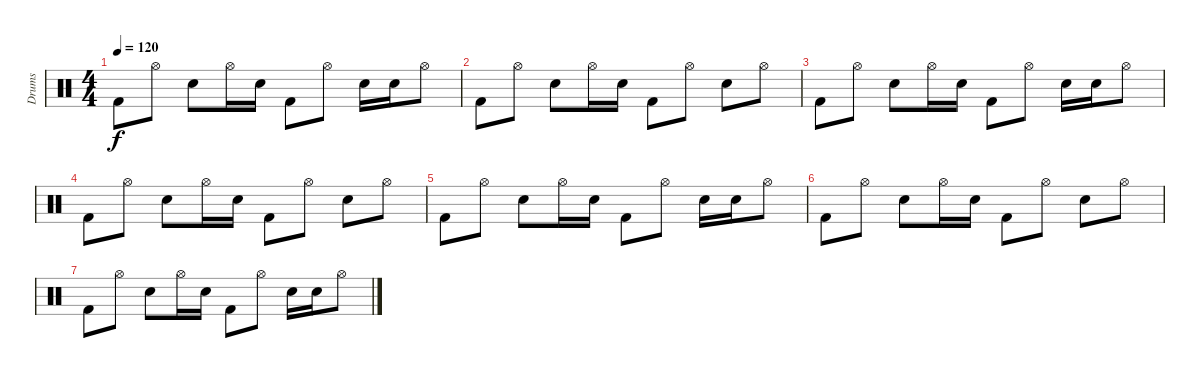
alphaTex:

\track ("Drums" "Drums") {instrument percussion}
\staff {score}
\articulation defaults
\ts (4 4)
\tempo 120
\clef neutral
\ks c "Kick (hit) 2".8{dy f} "Hi-Hat (open)".8 "Snare (hit) 2".8 "Hi-Hat (open)".16 "Snare (hit) 2".16 "Kick (hit) 2".8 "Hi-Hat (open)".8 "Snare (hit) 2".16 "Snare (hit) 2".16 "Hi-Hat (open)".8
|
"Kick (hit) 2".8 "Hi-Hat (open)".8 "Snare (hit) 2".8 "Hi-Hat (open)".16 "Snare (hit) 2".16 "Kick (hit) 2".8 "Hi-Hat (open)".8 "Snare (hit) 2".8 "Hi-Hat (open)".8 |
"Kick (hit) 2".8 "Hi-Hat (open)".8 "Snare (hit) 2".8 "Hi-Hat (open)".16 "Snare (hit) 2".16 "Kick (hit) 2".8 "Hi-Hat (open)".8 "Snare (hit) 2".16 "Snare (hit) 2".16 "Hi-Hat (open)".8 |
"Kick (hit) 2".8 "Hi-Hat (open)".8 "Snare (hit) 2".8 "Hi-Hat (open)".16 "Snare (hit) 2".16 "Kick (hit) 2".8 "Hi-Hat (open)".8 "Snare (hit) 2".8 "Hi-Hat (open)".8 |
"Kick (hit) 2".8 "Hi-Hat (open)".8 "Snare (hit) 2".8 "Hi-Hat (open)".16 "Snare (hit) 2".16 "Kick (hit) 2".8 "Hi-Hat (open)".8 "Snare (hit) 2".16 "Snare (hit) 2".16 "Hi-Hat (open)".8 |
"Kick (hit) 2".8 "Hi-Hat (open)".8 "Snare (hit) 2".8 "Hi-Hat (open)".16 "Snare (hit) 2".16 "Kick (hit) 2".8 "Hi-Hat (open)".8 "Snare (hit) 2".8 "Hi-Hat (open)".8 |
"Kick (hit) 2".8 "Hi-Hat (open)".8 "Snare (hit) 2".8 "Hi-Hat (open)".16 "Snare (hit) 2".16 "Kick (hit) 2".8 "Hi-Hat (open)".8 "Snare (hit) 2".16 "Snare (hit) 2".16 "Hi-Hat (open)".8
